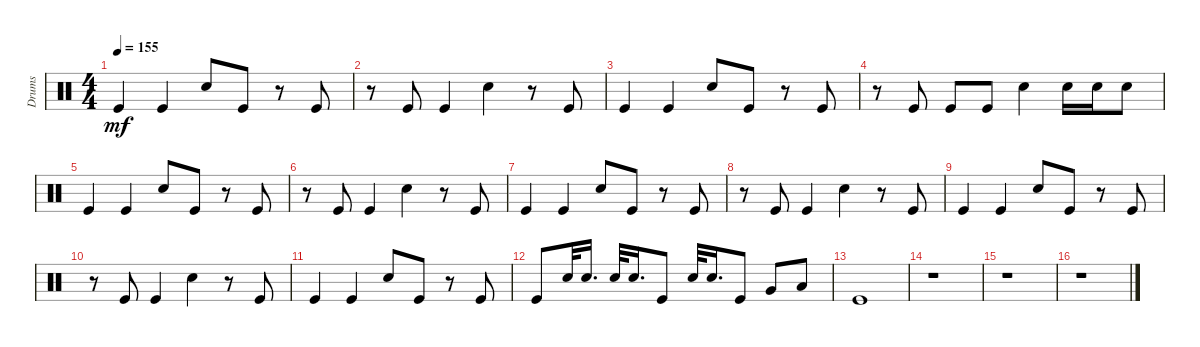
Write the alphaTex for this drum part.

\track ("Drums" "Drums") {instrument percussion}
\staff {score}
\articulation defaults
\ts (4 4)
\tempo 155
\clef neutral
\ks c "Kick (hit)".4{dy mf} "Kick (hit)".4 "Snare (hit) 2".8 "Kick (hit)".8
r.8 "Kick (hit)".8 |
r.8 "Kick (hit)".8 "Kick (hit)".4 "Snare (hit) 2".4 r.8 "Kick (hit)".8 |
"Kick (hit)".4 "Kick (hit)".4 "Snare (hit) 2".8 "Kick (hit)".8 r.8 "Kick (hit)".8 |
r.8 "Kick (hit)".8 "Kick (hit)".8 "Kick (hit)".8 "Snare (hit) 2".4 "Snare (hit) 2".16 "Snare (hit) 2".16 "Snare (hit) 2".8 |
"Kick (hit)".4 "Kick (hit)".4 "Snare (hit) 2".8 "Kick (hit)".8 r.8 "Kick (hit)".8 |
r.8 "Kick (hit)".8 "Kick (hit)".4 "Snare (hit) 2".4 r.8 "Kick (hit)".8 |
"Kick (hit)".4 "Kick (hit)".4 "Snare (hit) 2".8 "Kick (hit)".8 r.8 "Kick (hit)".8 |
r.8 "Kick (hit)".8 "Kick (hit)".4 "Snare (hit) 2".4 r.8 "Kick (hit)".8 |
"Kick (hit)".4 "Kick (hit)".4 "Snare (hit) 2".8 "Kick (hit)".8 r.8 "Kick (hit)".8 |
r.8 "Kick (hit)".8 "Kick (hit)".4 "Snare (hit) 2".4 r.8 "Kick (hit)".8 |
"Kick (hit)".4 "Kick (hit)".4 "Snare (hit) 2".8 "Kick (hit)".8 r.8 "Kick (hit)".8 |
"Kick (hit)".8 "Snare (hit) 2".32 "Snare (hit) 2".16{d} "Snare (hit) 2".32 "Snare (hit) 2".16{d} "Kick (hit)".8 "Snare (hit) 2".32 "Snare (hit) 2".16{d} "Kick (hit)".8 "Very Low Tom (hit)".8 "Low Floor Tom (hit)".8 |
"Kick (hit)".1 |
r.1 |
r.1 |
r.1
